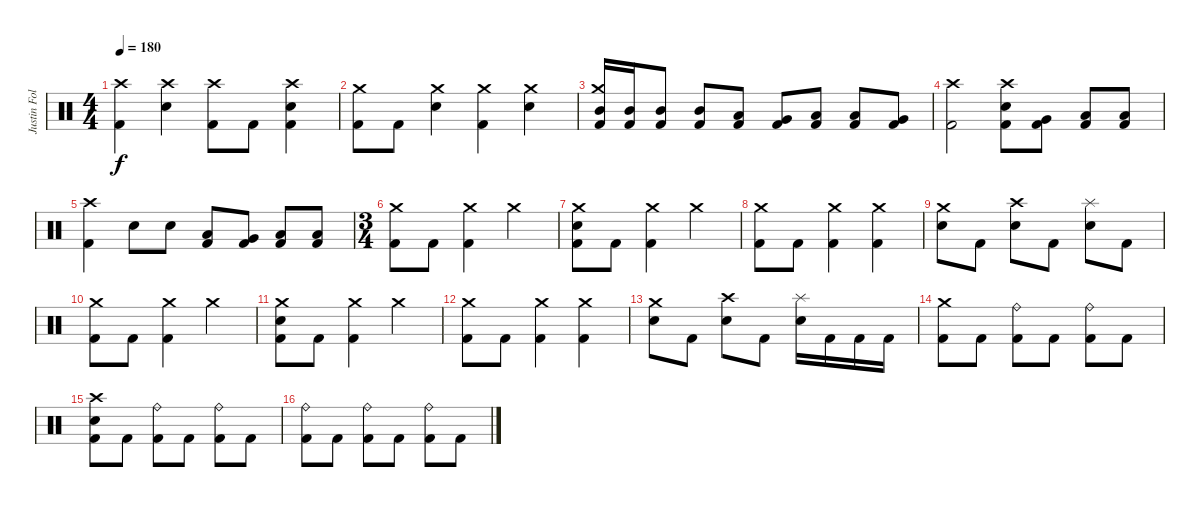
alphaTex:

\track ("Justin Foley" "Justin Fol") {instrument percussion}
\staff {score}
\articulation defaults
\ts (4 4)
\tempo 180
\clef neutral
\ks c
("Crash high (hit)" "Kick (hit) 2").4{dy f} ("Crash high (hit)" "Electric Snare (hit)").4 ("Crash high (hit)" "Kick (hit) 2").8 "Kick (hit) 2".8 ("Crash high (hit)" "Electric Snare (hit)" "Kick (hit) 2").4 |
("Crash medium (hit)" "Kick (hit) 2").8 "Kick (hit) 2".8 ("Crash medium (hit)" "Electric Snare (hit)").4 ("Crash medium (hit)" "Kick (hit) 2").4 ("Crash medium (hit)" "Electric Snare (hit)").4 |
("Crash medium (hit)" "Mid Tom (hit)" "Kick (hit) 2").16 ("Mid Tom (hit)" "Kick (hit) 2").16 ("Mid Tom (hit)" "Kick (hit) 2").8 ("Mid Tom (hit)" "Kick (hit) 2").8 ("Low Tom (hit)" "Kick (hit) 2").8 ("Very Low Tom (hit)" "Kick (hit) 2").8 ("Low Floor Tom (hit)" "Kick (hit) 2").8 ("Low Floor Tom (hit)" "Kick (hit) 2").8 ("Very Low Tom (hit)" "Kick (hit) 2").8 |
("Crash high (hit)" "Kick (hit) 2").2 ("Crash high (hit)" "Electric Snare (hit)" "Kick (hit) 2").8 ("Very Low Tom (hit)" "Kick (hit) 2").8 ("Low Floor Tom (hit)" "Kick (hit) 2").8 ("Low Floor Tom (hit)" "Kick (hit) 2").8 |
("Crash high (hit)" "Kick (hit) 2").4 "Electric Snare (hit)".8 "Electric Snare (hit)".8 ("Low Tom (hit)" "Kick (hit) 2").8 ("Very Low Tom (hit)" "Kick (hit) 2").8 ("Low Floor Tom (hit)" "Kick (hit) 2").8 ("Low Floor Tom (hit)" "Kick (hit) 2").8 |
\ts (3 4)
("Crash medium (hit)" "Kick (hit) 2").8 "Kick (hit) 2".8 ("Crash medium (hit)" "Kick (hit) 2").4 "Crash medium (hit)".4 |
("Crash medium (hit)" "Electric Snare (hit)" "Kick (hit) 2").8 "Kick (hit) 2".8 ("Crash medium (hit)" "Kick (hit) 2").4 "Crash medium (hit)".4 |
("Crash medium (hit)" "Kick (hit) 2").8 "Kick (hit) 2".8 ("Crash medium (hit)" "Kick (hit) 2").4 ("Crash medium (hit)" "Kick (hit) 2").4 |
("Crash medium (hit)" "Electric Snare (hit)").8 "Kick (hit) 2".8 ("Crash high (hit)" "Electric Snare (hit)").8 "Kick (hit) 2".8 ("Splash (hit)" "Electric Snare (hit)").8 "Kick (hit) 2".8 |
("Crash medium (hit)" "Kick (hit) 2").8 "Kick (hit) 2".8 ("Crash medium (hit)" "Kick (hit) 2").4 "Crash medium (hit)".4 |
("Crash medium (hit)" "Electric Snare (hit)" "Kick (hit) 2").8 "Kick (hit) 2".8 ("Crash medium (hit)" "Kick (hit) 2").4 "Crash medium (hit)".4 |
("Crash medium (hit)" "Kick (hit) 2").8 "Kick (hit) 2".8 ("Crash medium (hit)" "Kick (hit) 2").4 ("Crash medium (hit)" "Kick (hit) 2").4 |
("Crash medium (hit)" "Electric Snare (hit)").8 "Kick (hit) 2".8 ("Crash high (hit)" "Electric Snare (hit)").8 "Kick (hit) 2".8 ("Splash (hit)" "Electric Snare (hit)").16 "Kick (hit) 2".16 "Kick (hit) 2".16 "Kick (hit) 2".16 |
("Crash medium (hit)" "Kick (hit) 2").8 "Kick (hit) 2".8 ("Ride (bell)" "Kick (hit) 2").8 "Kick (hit) 2".8 ("Ride (bell)" "Kick (hit) 2").8 "Kick (hit) 2".8 |
("Crash high (hit)" "Electric Snare (hit)" "Kick (hit) 2").8 "Kick (hit) 2".8 ("Ride (bell)" "Kick (hit) 2").8 "Kick (hit) 2".8 ("Ride (bell)" "Kick (hit) 2").8 "Kick (hit) 2".8 |
("Ride (bell)" "Kick (hit) 2").8 "Kick (hit) 2".8 ("Ride (bell)" "Kick (hit) 2").8 "Kick (hit) 2".8 ("Ride (bell)" "Kick (hit) 2").8 "Kick (hit) 2".8
